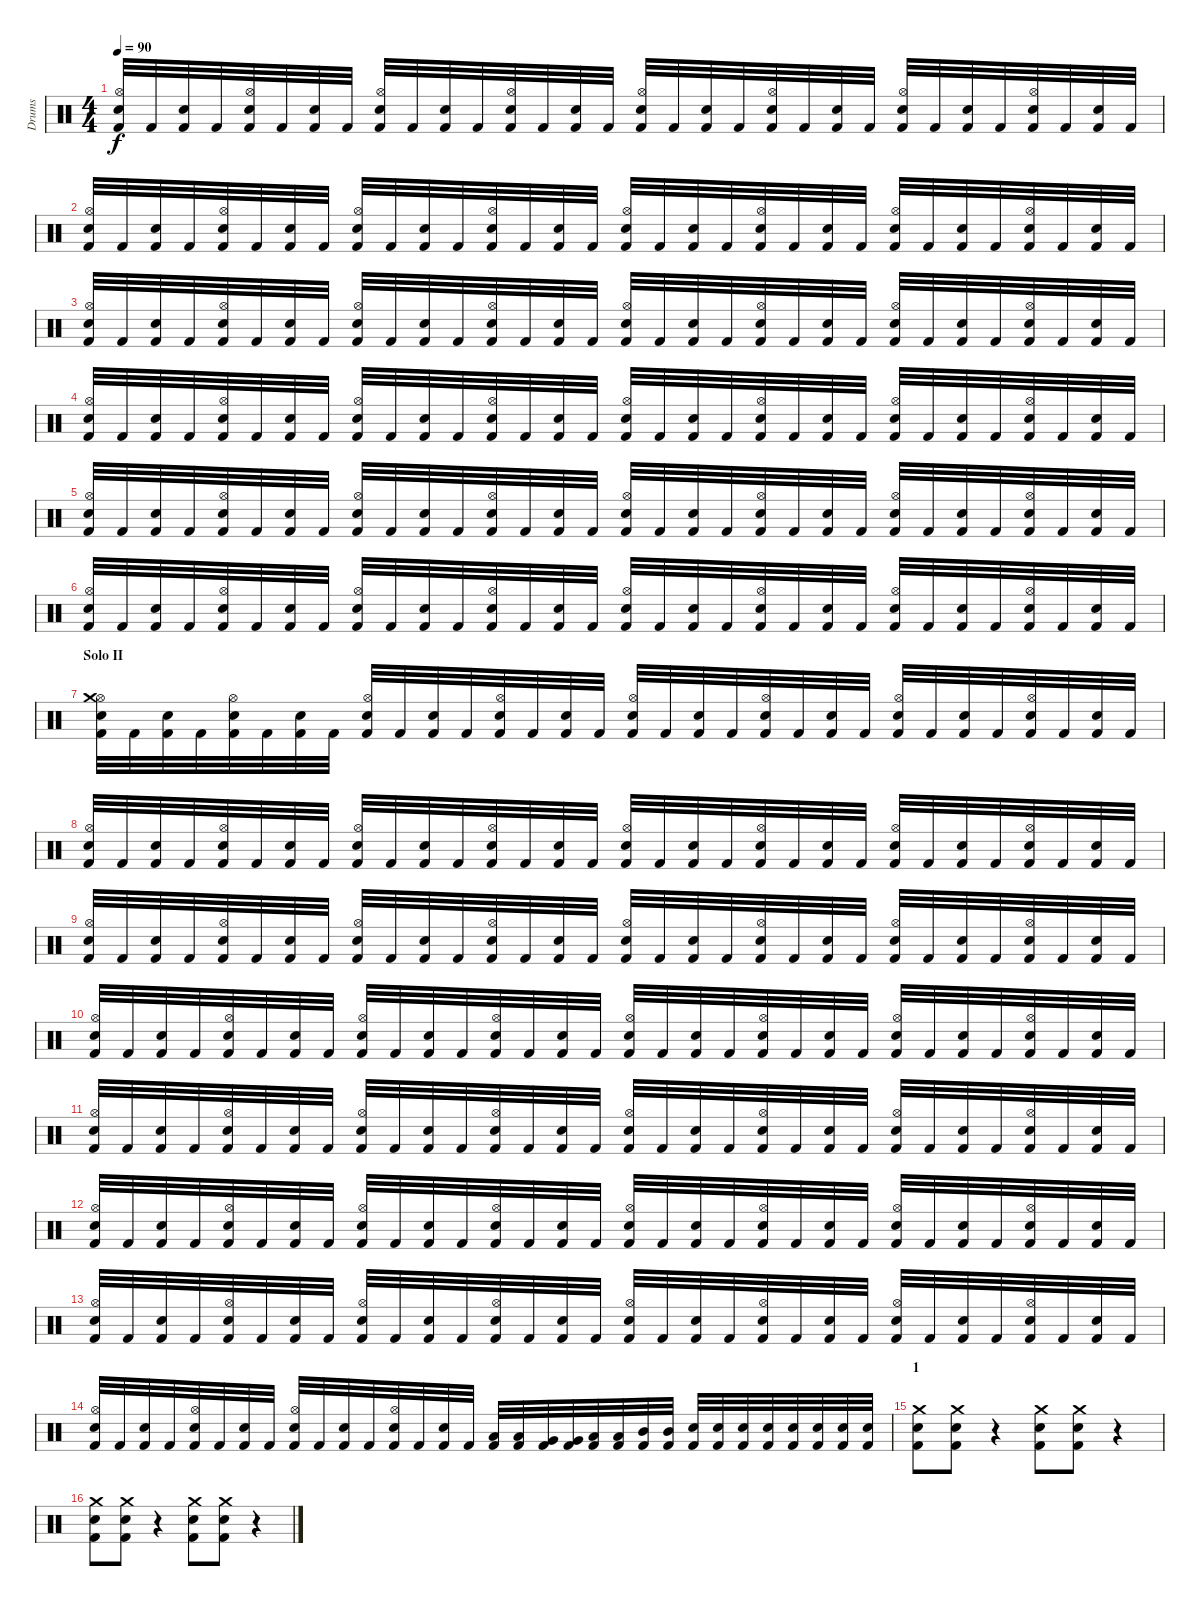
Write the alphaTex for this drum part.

\track ("Drums" "Drums") {instrument percussion}
\staff {score}
\articulation defaults
\ts (4 4)
\tempo 90
\clef neutral
\ks c
("Kick (hit) 2" "Hi-Hat (open)" "Snare (hit) 2").32{dy f} "Kick (hit) 2".32 ("Kick (hit) 2" "Snare (hit) 2").32 "Kick (hit) 2".32 ("Kick (hit) 2" "Hi-Hat (open)" "Snare (hit) 2").32 "Kick (hit) 2".32 ("Kick (hit) 2" "Snare (hit) 2").32 "Kick (hit) 2".32 ("Kick (hit) 2" "Hi-Hat (open)" "Snare (hit) 2").32 "Kick (hit) 2".32 ("Kick (hit) 2" "Snare (hit) 2").32 "Kick (hit) 2".32 ("Kick (hit) 2" "Hi-Hat (open)" "Snare (hit) 2").32 "Kick (hit) 2".32 ("Kick (hit) 2" "Snare (hit) 2").32 "Kick (hit) 2".32 ("Kick (hit) 2" "Hi-Hat (open)" "Snare (hit) 2").32 "Kick (hit) 2".32 ("Kick (hit) 2" "Snare (hit) 2").32 "Kick (hit) 2".32 ("Kick (hit) 2" "Hi-Hat (open)" "Snare (hit) 2").32 "Kick (hit) 2".32 ("Kick (hit) 2" "Snare (hit) 2").32 "Kick (hit) 2".32 ("Kick (hit) 2" "Hi-Hat (open)" "Snare (hit) 2").32 "Kick (hit) 2".32 ("Kick (hit) 2" "Snare (hit) 2").32 "Kick (hit) 2".32 ("Kick (hit) 2" "Hi-Hat (open)" "Snare (hit) 2").32 "Kick (hit) 2".32 ("Kick (hit) 2" "Snare (hit) 2").32 "Kick (hit) 2".32 |
("Kick (hit) 2" "Hi-Hat (open)" "Snare (hit) 2").32 "Kick (hit) 2".32 ("Kick (hit) 2" "Snare (hit) 2").32 "Kick (hit) 2".32 ("Kick (hit) 2" "Hi-Hat (open)" "Snare (hit) 2").32 "Kick (hit) 2".32 ("Kick (hit) 2" "Snare (hit) 2").32 "Kick (hit) 2".32 ("Kick (hit) 2" "Hi-Hat (open)" "Snare (hit) 2").32 "Kick (hit) 2".32 ("Kick (hit) 2" "Snare (hit) 2").32 "Kick (hit) 2".32 ("Kick (hit) 2" "Hi-Hat (open)" "Snare (hit) 2").32 "Kick (hit) 2".32 ("Kick (hit) 2" "Snare (hit) 2").32 "Kick (hit) 2".32 ("Kick (hit) 2" "Hi-Hat (open)" "Snare (hit) 2").32 "Kick (hit) 2".32 ("Kick (hit) 2" "Snare (hit) 2").32 "Kick (hit) 2".32 ("Kick (hit) 2" "Hi-Hat (open)" "Snare (hit) 2").32 "Kick (hit) 2".32 ("Kick (hit) 2" "Snare (hit) 2").32 "Kick (hit) 2".32 ("Kick (hit) 2" "Hi-Hat (open)" "Snare (hit) 2").32 "Kick (hit) 2".32 ("Kick (hit) 2" "Snare (hit) 2").32 "Kick (hit) 2".32 ("Kick (hit) 2" "Hi-Hat (open)" "Snare (hit) 2").32 "Kick (hit) 2".32 ("Kick (hit) 2" "Snare (hit) 2").32 "Kick (hit) 2".32 |
("Kick (hit) 2" "Hi-Hat (open)" "Snare (hit) 2").32 "Kick (hit) 2".32 ("Kick (hit) 2" "Snare (hit) 2").32 "Kick (hit) 2".32 ("Kick (hit) 2" "Hi-Hat (open)" "Snare (hit) 2").32 "Kick (hit) 2".32 ("Kick (hit) 2" "Snare (hit) 2").32 "Kick (hit) 2".32 ("Kick (hit) 2" "Hi-Hat (open)" "Snare (hit) 2").32 "Kick (hit) 2".32 ("Kick (hit) 2" "Snare (hit) 2").32 "Kick (hit) 2".32 ("Kick (hit) 2" "Hi-Hat (open)" "Snare (hit) 2").32 "Kick (hit) 2".32 ("Kick (hit) 2" "Snare (hit) 2").32 "Kick (hit) 2".32 ("Kick (hit) 2" "Hi-Hat (open)" "Snare (hit) 2").32 "Kick (hit) 2".32 ("Kick (hit) 2" "Snare (hit) 2").32 "Kick (hit) 2".32 ("Kick (hit) 2" "Hi-Hat (open)" "Snare (hit) 2").32 "Kick (hit) 2".32 ("Kick (hit) 2" "Snare (hit) 2").32 "Kick (hit) 2".32 ("Kick (hit) 2" "Hi-Hat (open)" "Snare (hit) 2").32 "Kick (hit) 2".32 ("Kick (hit) 2" "Snare (hit) 2").32 "Kick (hit) 2".32 ("Kick (hit) 2" "Hi-Hat (open)" "Snare (hit) 2").32 "Kick (hit) 2".32 ("Kick (hit) 2" "Snare (hit) 2").32 "Kick (hit) 2".32 |
("Kick (hit) 2" "Hi-Hat (open)" "Snare (hit) 2").32 "Kick (hit) 2".32 ("Kick (hit) 2" "Snare (hit) 2").32 "Kick (hit) 2".32 ("Kick (hit) 2" "Hi-Hat (open)" "Snare (hit) 2").32 "Kick (hit) 2".32 ("Kick (hit) 2" "Snare (hit) 2").32 "Kick (hit) 2".32 ("Kick (hit) 2" "Hi-Hat (open)" "Snare (hit) 2").32 "Kick (hit) 2".32 ("Kick (hit) 2" "Snare (hit) 2").32 "Kick (hit) 2".32 ("Kick (hit) 2" "Hi-Hat (open)" "Snare (hit) 2").32 "Kick (hit) 2".32 ("Kick (hit) 2" "Snare (hit) 2").32 "Kick (hit) 2".32 ("Kick (hit) 2" "Hi-Hat (open)" "Snare (hit) 2").32 "Kick (hit) 2".32 ("Kick (hit) 2" "Snare (hit) 2").32 "Kick (hit) 2".32 ("Kick (hit) 2" "Hi-Hat (open)" "Snare (hit) 2").32 "Kick (hit) 2".32 ("Kick (hit) 2" "Snare (hit) 2").32 "Kick (hit) 2".32 ("Kick (hit) 2" "Hi-Hat (open)" "Snare (hit) 2").32 "Kick (hit) 2".32 ("Kick (hit) 2" "Snare (hit) 2").32 "Kick (hit) 2".32 ("Kick (hit) 2" "Hi-Hat (open)" "Snare (hit) 2").32 "Kick (hit) 2".32 ("Kick (hit) 2" "Snare (hit) 2").32 "Kick (hit) 2".32 |
("Kick (hit) 2" "Hi-Hat (open)" "Snare (hit) 2").32 "Kick (hit) 2".32 ("Kick (hit) 2" "Snare (hit) 2").32 "Kick (hit) 2".32 ("Kick (hit) 2" "Hi-Hat (open)" "Snare (hit) 2").32 "Kick (hit) 2".32 ("Kick (hit) 2" "Snare (hit) 2").32 "Kick (hit) 2".32 ("Kick (hit) 2" "Hi-Hat (open)" "Snare (hit) 2").32 "Kick (hit) 2".32 ("Kick (hit) 2" "Snare (hit) 2").32 "Kick (hit) 2".32 ("Kick (hit) 2" "Hi-Hat (open)" "Snare (hit) 2").32 "Kick (hit) 2".32 ("Kick (hit) 2" "Snare (hit) 2").32 "Kick (hit) 2".32 ("Kick (hit) 2" "Hi-Hat (open)" "Snare (hit) 2").32 "Kick (hit) 2".32 ("Kick (hit) 2" "Snare (hit) 2").32 "Kick (hit) 2".32 ("Kick (hit) 2" "Hi-Hat (open)" "Snare (hit) 2").32 "Kick (hit) 2".32 ("Kick (hit) 2" "Snare (hit) 2").32 "Kick (hit) 2".32 ("Kick (hit) 2" "Hi-Hat (open)" "Snare (hit) 2").32 "Kick (hit) 2".32 ("Kick (hit) 2" "Snare (hit) 2").32 "Kick (hit) 2".32 ("Kick (hit) 2" "Hi-Hat (open)" "Snare (hit) 2").32 "Kick (hit) 2".32 ("Kick (hit) 2" "Snare (hit) 2").32 "Kick (hit) 2".32 |
("Kick (hit) 2" "Hi-Hat (open)" "Snare (hit) 2").32 "Kick (hit) 2".32 ("Kick (hit) 2" "Snare (hit) 2").32 "Kick (hit) 2".32 ("Kick (hit) 2" "Hi-Hat (open)" "Snare (hit) 2").32 "Kick (hit) 2".32 ("Kick (hit) 2" "Snare (hit) 2").32 "Kick (hit) 2".32 ("Kick (hit) 2" "Hi-Hat (open)" "Snare (hit) 2").32 "Kick (hit) 2".32 ("Kick (hit) 2" "Snare (hit) 2").32 "Kick (hit) 2".32 ("Kick (hit) 2" "Hi-Hat (open)" "Snare (hit) 2").32 "Kick (hit) 2".32 ("Kick (hit) 2" "Snare (hit) 2").32 "Kick (hit) 2".32 ("Kick (hit) 2" "Hi-Hat (open)" "Snare (hit) 2").32 "Kick (hit) 2".32 ("Kick (hit) 2" "Snare (hit) 2").32 "Kick (hit) 2".32 ("Kick (hit) 2" "Hi-Hat (open)" "Snare (hit) 2").32 "Kick (hit) 2".32 ("Kick (hit) 2" "Snare (hit) 2").32 "Kick (hit) 2".32 ("Kick (hit) 2" "Hi-Hat (open)" "Snare (hit) 2").32 "Kick (hit) 2".32 ("Kick (hit) 2" "Snare (hit) 2").32 "Kick (hit) 2".32 ("Kick (hit) 2" "Hi-Hat (open)" "Snare (hit) 2").32 "Kick (hit) 2".32 ("Kick (hit) 2" "Snare (hit) 2").32 "Kick (hit) 2".32 |
\section ("" "Solo II")
("Kick (hit) 2" "Hi-Hat (open)" "Snare (hit) 2" "Crash medium (hit)").32 "Kick (hit) 2".32 ("Kick (hit) 2" "Snare (hit) 2").32 "Kick (hit) 2".32 ("Kick (hit) 2" "Hi-Hat (open)" "Snare (hit) 2").32 "Kick (hit) 2".32 ("Kick (hit) 2" "Snare (hit) 2").32 "Kick (hit) 2".32 ("Kick (hit) 2" "Hi-Hat (open)" "Snare (hit) 2").32 "Kick (hit) 2".32 ("Kick (hit) 2" "Snare (hit) 2").32 "Kick (hit) 2".32 ("Kick (hit) 2" "Hi-Hat (open)" "Snare (hit) 2").32 "Kick (hit) 2".32 ("Kick (hit) 2" "Snare (hit) 2").32 "Kick (hit) 2".32 ("Kick (hit) 2" "Hi-Hat (open)" "Snare (hit) 2").32 "Kick (hit) 2".32 ("Kick (hit) 2" "Snare (hit) 2").32 "Kick (hit) 2".32 ("Kick (hit) 2" "Hi-Hat (open)" "Snare (hit) 2").32 "Kick (hit) 2".32 ("Kick (hit) 2" "Snare (hit) 2").32 "Kick (hit) 2".32 ("Kick (hit) 2" "Hi-Hat (open)" "Snare (hit) 2").32 "Kick (hit) 2".32 ("Kick (hit) 2" "Snare (hit) 2").32 "Kick (hit) 2".32 ("Kick (hit) 2" "Hi-Hat (open)" "Snare (hit) 2").32 "Kick (hit) 2".32 ("Kick (hit) 2" "Snare (hit) 2").32 "Kick (hit) 2".32 |
("Kick (hit) 2" "Hi-Hat (open)" "Snare (hit) 2").32 "Kick (hit) 2".32 ("Kick (hit) 2" "Snare (hit) 2").32 "Kick (hit) 2".32 ("Kick (hit) 2" "Hi-Hat (open)" "Snare (hit) 2").32 "Kick (hit) 2".32 ("Kick (hit) 2" "Snare (hit) 2").32 "Kick (hit) 2".32 ("Kick (hit) 2" "Hi-Hat (open)" "Snare (hit) 2").32 "Kick (hit) 2".32 ("Kick (hit) 2" "Snare (hit) 2").32 "Kick (hit) 2".32 ("Kick (hit) 2" "Hi-Hat (open)" "Snare (hit) 2").32 "Kick (hit) 2".32 ("Kick (hit) 2" "Snare (hit) 2").32 "Kick (hit) 2".32 ("Kick (hit) 2" "Hi-Hat (open)" "Snare (hit) 2").32 "Kick (hit) 2".32 ("Kick (hit) 2" "Snare (hit) 2").32 "Kick (hit) 2".32 ("Kick (hit) 2" "Hi-Hat (open)" "Snare (hit) 2").32 "Kick (hit) 2".32 ("Kick (hit) 2" "Snare (hit) 2").32 "Kick (hit) 2".32 ("Kick (hit) 2" "Hi-Hat (open)" "Snare (hit) 2").32 "Kick (hit) 2".32 ("Kick (hit) 2" "Snare (hit) 2").32 "Kick (hit) 2".32 ("Kick (hit) 2" "Hi-Hat (open)" "Snare (hit) 2").32 "Kick (hit) 2".32 ("Kick (hit) 2" "Snare (hit) 2").32 "Kick (hit) 2".32 |
("Kick (hit) 2" "Hi-Hat (open)" "Snare (hit) 2").32 "Kick (hit) 2".32 ("Kick (hit) 2" "Snare (hit) 2").32 "Kick (hit) 2".32 ("Kick (hit) 2" "Hi-Hat (open)" "Snare (hit) 2").32 "Kick (hit) 2".32 ("Kick (hit) 2" "Snare (hit) 2").32 "Kick (hit) 2".32 ("Kick (hit) 2" "Hi-Hat (open)" "Snare (hit) 2").32 "Kick (hit) 2".32 ("Kick (hit) 2" "Snare (hit) 2").32 "Kick (hit) 2".32 ("Kick (hit) 2" "Hi-Hat (open)" "Snare (hit) 2").32 "Kick (hit) 2".32 ("Kick (hit) 2" "Snare (hit) 2").32 "Kick (hit) 2".32 ("Kick (hit) 2" "Hi-Hat (open)" "Snare (hit) 2").32 "Kick (hit) 2".32 ("Kick (hit) 2" "Snare (hit) 2").32 "Kick (hit) 2".32 ("Kick (hit) 2" "Hi-Hat (open)" "Snare (hit) 2").32 "Kick (hit) 2".32 ("Kick (hit) 2" "Snare (hit) 2").32 "Kick (hit) 2".32 ("Kick (hit) 2" "Hi-Hat (open)" "Snare (hit) 2").32 "Kick (hit) 2".32 ("Kick (hit) 2" "Snare (hit) 2").32 "Kick (hit) 2".32 ("Kick (hit) 2" "Hi-Hat (open)" "Snare (hit) 2").32 "Kick (hit) 2".32 ("Kick (hit) 2" "Snare (hit) 2").32 "Kick (hit) 2".32 |
("Kick (hit) 2" "Hi-Hat (open)" "Snare (hit) 2").32 "Kick (hit) 2".32 ("Kick (hit) 2" "Snare (hit) 2").32 "Kick (hit) 2".32 ("Kick (hit) 2" "Hi-Hat (open)" "Snare (hit) 2").32 "Kick (hit) 2".32 ("Kick (hit) 2" "Snare (hit) 2").32 "Kick (hit) 2".32 ("Kick (hit) 2" "Hi-Hat (open)" "Snare (hit) 2").32 "Kick (hit) 2".32 ("Kick (hit) 2" "Snare (hit) 2").32 "Kick (hit) 2".32 ("Kick (hit) 2" "Hi-Hat (open)" "Snare (hit) 2").32 "Kick (hit) 2".32 ("Kick (hit) 2" "Snare (hit) 2").32 "Kick (hit) 2".32 ("Kick (hit) 2" "Hi-Hat (open)" "Snare (hit) 2").32 "Kick (hit) 2".32 ("Kick (hit) 2" "Snare (hit) 2").32 "Kick (hit) 2".32 ("Kick (hit) 2" "Hi-Hat (open)" "Snare (hit) 2").32 "Kick (hit) 2".32 ("Kick (hit) 2" "Snare (hit) 2").32 "Kick (hit) 2".32 ("Kick (hit) 2" "Hi-Hat (open)" "Snare (hit) 2").32 "Kick (hit) 2".32 ("Kick (hit) 2" "Snare (hit) 2").32 "Kick (hit) 2".32 ("Kick (hit) 2" "Hi-Hat (open)" "Snare (hit) 2").32 "Kick (hit) 2".32 ("Kick (hit) 2" "Snare (hit) 2").32 "Kick (hit) 2".32 |
("Kick (hit) 2" "Hi-Hat (open)" "Snare (hit) 2").32 "Kick (hit) 2".32 ("Kick (hit) 2" "Snare (hit) 2").32 "Kick (hit) 2".32 ("Kick (hit) 2" "Hi-Hat (open)" "Snare (hit) 2").32 "Kick (hit) 2".32 ("Kick (hit) 2" "Snare (hit) 2").32 "Kick (hit) 2".32 ("Kick (hit) 2" "Hi-Hat (open)" "Snare (hit) 2").32 "Kick (hit) 2".32 ("Kick (hit) 2" "Snare (hit) 2").32 "Kick (hit) 2".32 ("Kick (hit) 2" "Hi-Hat (open)" "Snare (hit) 2").32 "Kick (hit) 2".32 ("Kick (hit) 2" "Snare (hit) 2").32 "Kick (hit) 2".32 ("Kick (hit) 2" "Hi-Hat (open)" "Snare (hit) 2").32 "Kick (hit) 2".32 ("Kick (hit) 2" "Snare (hit) 2").32 "Kick (hit) 2".32 ("Kick (hit) 2" "Hi-Hat (open)" "Snare (hit) 2").32 "Kick (hit) 2".32 ("Kick (hit) 2" "Snare (hit) 2").32 "Kick (hit) 2".32 ("Kick (hit) 2" "Hi-Hat (open)" "Snare (hit) 2").32 "Kick (hit) 2".32 ("Kick (hit) 2" "Snare (hit) 2").32 "Kick (hit) 2".32 ("Kick (hit) 2" "Hi-Hat (open)" "Snare (hit) 2").32 "Kick (hit) 2".32 ("Kick (hit) 2" "Snare (hit) 2").32 "Kick (hit) 2".32 |
("Kick (hit) 2" "Hi-Hat (open)" "Snare (hit) 2").32 "Kick (hit) 2".32 ("Kick (hit) 2" "Snare (hit) 2").32 "Kick (hit) 2".32 ("Kick (hit) 2" "Hi-Hat (open)" "Snare (hit) 2").32 "Kick (hit) 2".32 ("Kick (hit) 2" "Snare (hit) 2").32 "Kick (hit) 2".32 ("Kick (hit) 2" "Hi-Hat (open)" "Snare (hit) 2").32 "Kick (hit) 2".32 ("Kick (hit) 2" "Snare (hit) 2").32 "Kick (hit) 2".32 ("Kick (hit) 2" "Hi-Hat (open)" "Snare (hit) 2").32 "Kick (hit) 2".32 ("Kick (hit) 2" "Snare (hit) 2").32 "Kick (hit) 2".32 ("Kick (hit) 2" "Hi-Hat (open)" "Snare (hit) 2").32 "Kick (hit) 2".32 ("Kick (hit) 2" "Snare (hit) 2").32 "Kick (hit) 2".32 ("Kick (hit) 2" "Hi-Hat (open)" "Snare (hit) 2").32 "Kick (hit) 2".32 ("Kick (hit) 2" "Snare (hit) 2").32 "Kick (hit) 2".32 ("Kick (hit) 2" "Hi-Hat (open)" "Snare (hit) 2").32 "Kick (hit) 2".32 ("Kick (hit) 2" "Snare (hit) 2").32 "Kick (hit) 2".32 ("Kick (hit) 2" "Hi-Hat (open)" "Snare (hit) 2").32 "Kick (hit) 2".32 ("Kick (hit) 2" "Snare (hit) 2").32 "Kick (hit) 2".32 |
("Kick (hit) 2" "Hi-Hat (open)" "Snare (hit) 2").32 "Kick (hit) 2".32 ("Kick (hit) 2" "Snare (hit) 2").32 "Kick (hit) 2".32 ("Kick (hit) 2" "Hi-Hat (open)" "Snare (hit) 2").32 "Kick (hit) 2".32 ("Kick (hit) 2" "Snare (hit) 2").32 "Kick (hit) 2".32 ("Kick (hit) 2" "Hi-Hat (open)" "Snare (hit) 2").32 "Kick (hit) 2".32 ("Kick (hit) 2" "Snare (hit) 2").32 "Kick (hit) 2".32 ("Kick (hit) 2" "Hi-Hat (open)" "Snare (hit) 2").32 "Kick (hit) 2".32 ("Kick (hit) 2" "Snare (hit) 2").32 "Kick (hit) 2".32 ("Kick (hit) 2" "Hi-Hat (open)" "Snare (hit) 2").32 "Kick (hit) 2".32 ("Kick (hit) 2" "Snare (hit) 2").32 "Kick (hit) 2".32 ("Kick (hit) 2" "Hi-Hat (open)" "Snare (hit) 2").32 "Kick (hit) 2".32 ("Kick (hit) 2" "Snare (hit) 2").32 "Kick (hit) 2".32 ("Kick (hit) 2" "Hi-Hat (open)" "Snare (hit) 2").32 "Kick (hit) 2".32 ("Kick (hit) 2" "Snare (hit) 2").32 "Kick (hit) 2".32 ("Kick (hit) 2" "Hi-Hat (open)" "Snare (hit) 2").32 "Kick (hit) 2".32 ("Kick (hit) 2" "Snare (hit) 2").32 "Kick (hit) 2".32 |
("Kick (hit) 2" "Hi-Hat (open)" "Snare (hit) 2").32 "Kick (hit) 2".32 ("Kick (hit) 2" "Snare (hit) 2").32 "Kick (hit) 2".32 ("Kick (hit) 2" "Hi-Hat (open)" "Snare (hit) 2").32 "Kick (hit) 2".32 ("Kick (hit) 2" "Snare (hit) 2").32 "Kick (hit) 2".32 ("Kick (hit) 2" "Hi-Hat (open)" "Snare (hit) 2").32 "Kick (hit) 2".32 ("Kick (hit) 2" "Snare (hit) 2").32 "Kick (hit) 2".32 ("Kick (hit) 2" "Hi-Hat (open)" "Snare (hit) 2").32 "Kick (hit) 2".32 ("Kick (hit) 2" "Snare (hit) 2").32 "Kick (hit) 2".32 ("Kick (hit) 2" "Low Floor Tom (hit)").32 ("Kick (hit) 2" "Low Floor Tom (hit)").32 ("Kick (hit) 2" "Very Low Tom (hit)").32 ("Kick (hit) 2" "Very Low Tom (hit)").32 ("Kick (hit) 2" "Low Tom (hit)").32 ("Kick (hit) 2" "Low Tom (hit)").32 ("Kick (hit) 2" "Mid Tom (hit)").32 ("Kick (hit) 2" "Mid Tom (hit)").32 ("Kick (hit) 2" "Snare (hit) 2").32 ("Kick (hit) 2" "Snare (hit) 2").32 ("Kick (hit) 2" "Snare (hit) 2").32 ("Kick (hit) 2" "Snare (hit) 2").32 ("Kick (hit) 2" "Snare (hit) 2").32 ("Kick (hit) 2" "Snare (hit) 2").32 ("Kick (hit) 2" "Snare (hit) 2").32 ("Kick (hit) 2" "Snare (hit) 2").32 |
\section ("" "1")
("Kick (hit) 2" "Snare (hit) 2" "Crash medium (hit)").8 ("Kick (hit) 2" "Snare (hit) 2" "Crash medium (hit)").8 r.4 ("Kick (hit) 2" "Snare (hit) 2" "Crash medium (hit)").8 ("Kick (hit) 2" "Snare (hit) 2" "Crash medium (hit)").8 r.4 |
("Kick (hit) 2" "Snare (hit) 2" "Crash medium (hit)").8 ("Kick (hit) 2" "Snare (hit) 2" "Crash medium (hit)").8 r.4 ("Kick (hit) 2" "Snare (hit) 2" "Crash medium (hit)").8 ("Kick (hit) 2" "Snare (hit) 2" "Crash medium (hit)").8 r.4
